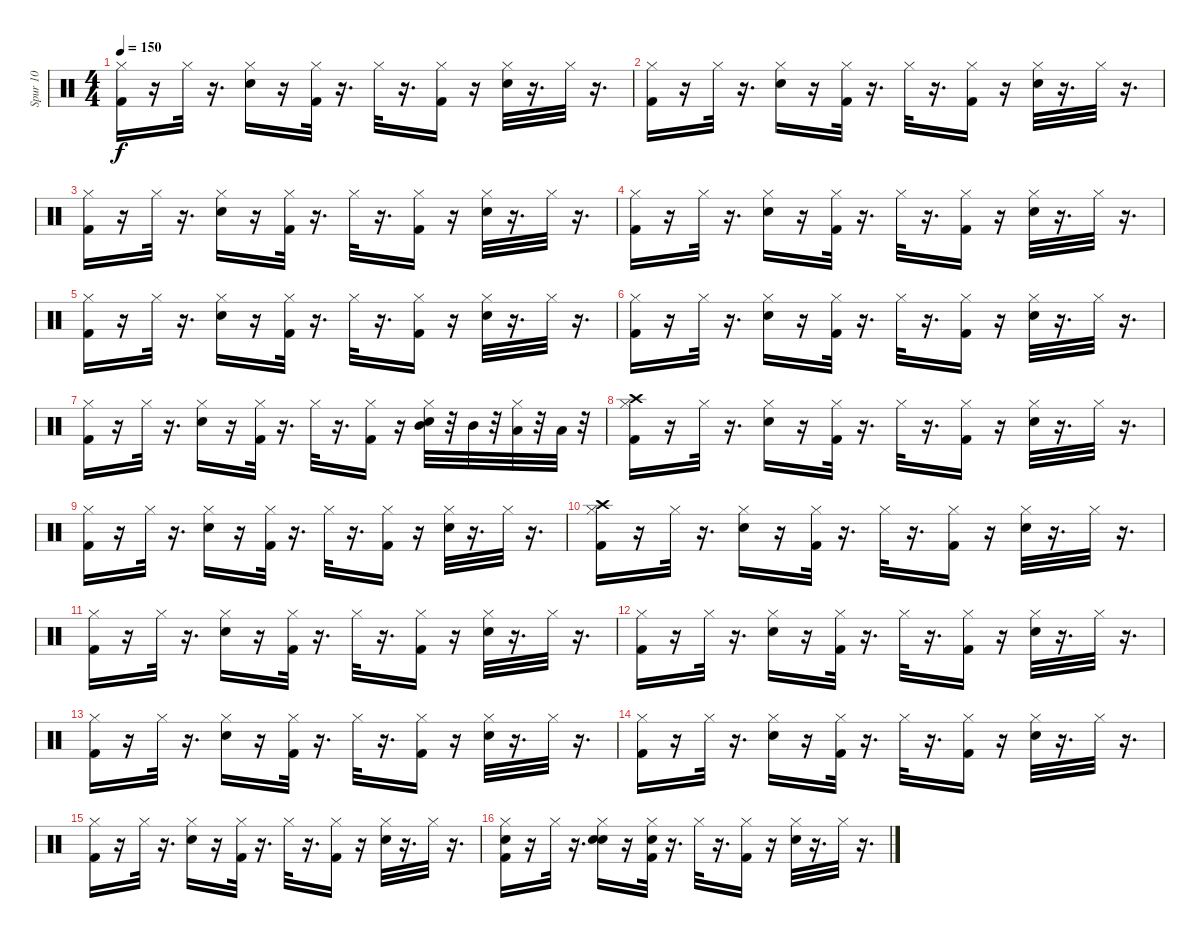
\track ("Spur 10" "Spur 10") {instrument percussion}
\staff {score}
\articulation defaults
\ts (4 4)
\tempo 150
\clef neutral
\ks c
("Hi-Hat (closed)" "Kick (hit) 2").16{dy f} r.16 "Hi-Hat (closed)".32 r.16{d} ("Electric Snare (hit)" "Hi-Hat (closed)").16 r.16 ("Kick (hit) 2" "Hi-Hat (closed)").32 r.16{d} "Hi-Hat (closed)".32 r.16{d} ("Kick (hit) 2" "Hi-Hat (closed)").16 r.16 ("Electric Snare (hit)" "Hi-Hat (closed)").32 r.16{d} "Hi-Hat (closed)".32 r.16{d} |
("Kick (hit) 2" "Hi-Hat (closed)").16 r.16 "Hi-Hat (closed)".32 r.16{d} ("Electric Snare (hit)" "Hi-Hat (closed)").16 r.16 ("Kick (hit) 2" "Hi-Hat (closed)").32 r.16{d} "Hi-Hat (closed)".32 r.16{d} ("Kick (hit) 2" "Hi-Hat (closed)").16 r.16 ("Electric Snare (hit)" "Hi-Hat (closed)").32 r.16{d} "Hi-Hat (closed)".32 r.16{d} |
("Kick (hit) 2" "Hi-Hat (closed)").16 r.16 "Hi-Hat (closed)".32 r.16{d} ("Electric Snare (hit)" "Hi-Hat (closed)").16 r.16 ("Kick (hit) 2" "Hi-Hat (closed)").32 r.16{d} "Hi-Hat (closed)".32 r.16{d} ("Kick (hit) 2" "Hi-Hat (closed)").16 r.16 ("Electric Snare (hit)" "Hi-Hat (closed)").32 r.16{d} "Hi-Hat (closed)".32 r.16{d} |
("Hi-Hat (closed)" "Kick (hit) 2").16 r.16 "Hi-Hat (closed)".32 r.16{d} ("Electric Snare (hit)" "Hi-Hat (closed)").16 r.16 ("Kick (hit) 2" "Hi-Hat (closed)").32 r.16{d} "Hi-Hat (closed)".32 r.16{d} ("Hi-Hat (closed)" "Kick (hit) 2").16 r.16 ("Hi-Hat (closed)" "Electric Snare (hit)").32 r.16{d} "Hi-Hat (closed)".32 r.16{d} |
("Kick (hit) 2" "Hi-Hat (closed)").16 r.16 "Hi-Hat (closed)".32 r.16{d} ("Electric Snare (hit)" "Hi-Hat (closed)").16 r.16 ("Kick (hit) 2" "Hi-Hat (closed)").32 r.16{d} "Hi-Hat (closed)".32 r.16{d} ("Kick (hit) 2" "Hi-Hat (closed)").16 r.16 ("Electric Snare (hit)" "Hi-Hat (closed)").32 r.16{d} "Hi-Hat (closed)".32 r.16{d} |
("Kick (hit) 2" "Hi-Hat (closed)").16 r.16 "Hi-Hat (closed)".32 r.16{d} ("Electric Snare (hit)" "Hi-Hat (closed)").16 r.16 ("Kick (hit) 2" "Hi-Hat (closed)").32 r.16{d} "Hi-Hat (closed)".32 r.16{d} ("Kick (hit) 2" "Hi-Hat (closed)").16 r.16 ("Electric Snare (hit)" "Hi-Hat (closed)").32 r.16{d} "Hi-Hat (closed)".32 r.16{d} |
("Kick (hit) 2" "Hi-Hat (closed)").16 r.16 "Hi-Hat (closed)".32 r.16{d} ("Electric Snare (hit)" "Hi-Hat (closed)").16 r.16 ("Kick (hit) 2" "Hi-Hat (closed)").32 r.16{d} "Hi-Hat (closed)".32 r.16{d} ("Kick (hit) 2" "Hi-Hat (closed)").16 r.16 ("Electric Snare (hit)" "Mid Tom (hit)" "Hi-Hat (closed)").32 r.32 "Mid Tom (hit)".32 r.32 ("Hi-Hat (closed)" "Low Tom (hit)").32 r.32 "Low Tom (hit)".32 r.32 |
("Crash high (hit)" "Hi-Hat (closed)" "Kick (hit) 2").16 r.16 "Hi-Hat (closed)".32 r.16{d} ("Electric Snare (hit)" "Hi-Hat (closed)").16 r.16 ("Kick (hit) 2" "Hi-Hat (closed)").32 r.16{d} "Hi-Hat (closed)".32 r.16{d} ("Kick (hit) 2" "Hi-Hat (closed)").16 r.16 ("Electric Snare (hit)" "Hi-Hat (closed)").32 r.16{d} "Hi-Hat (closed)".32 r.16{d} |
("Kick (hit) 2" "Hi-Hat (closed)").16 r.16 "Hi-Hat (closed)".32 r.16{d} ("Electric Snare (hit)" "Hi-Hat (closed)").16 r.16 ("Kick (hit) 2" "Hi-Hat (closed)").32 r.16{d} "Hi-Hat (closed)".32 r.16{d} ("Kick (hit) 2" "Hi-Hat (closed)").16 r.16 ("Electric Snare (hit)" "Hi-Hat (closed)").32 r.16{d} "Hi-Hat (closed)".32 r.16{d} |
("Crash high (hit)" "Hi-Hat (closed)" "Kick (hit) 2").16 r.16 "Hi-Hat (closed)".32 r.16{d} ("Hi-Hat (closed)" "Electric Snare (hit)").16 r.16 ("Hi-Hat (closed)" "Kick (hit) 2").32 r.16{d} "Hi-Hat (closed)".32 r.16{d} ("Kick (hit) 2" "Hi-Hat (closed)").16 r.16 ("Electric Snare (hit)" "Hi-Hat (closed)").32 r.16{d} "Hi-Hat (closed)".32 r.16{d} |
("Hi-Hat (closed)" "Kick (hit) 2").16 r.16 "Hi-Hat (closed)".32 r.16{d} ("Electric Snare (hit)" "Hi-Hat (closed)").16 r.16 ("Kick (hit) 2" "Hi-Hat (closed)").32 r.16{d} "Hi-Hat (closed)".32 r.16{d} ("Kick (hit) 2" "Hi-Hat (closed)").16 r.16 ("Electric Snare (hit)" "Hi-Hat (closed)").32 r.16{d} "Hi-Hat (closed)".32 r.16{d} |
("Hi-Hat (closed)" "Kick (hit) 2").16 r.16 "Hi-Hat (closed)".32 r.16{d} ("Electric Snare (hit)" "Hi-Hat (closed)").16 r.16 ("Kick (hit) 2" "Hi-Hat (closed)").32 r.16{d} "Hi-Hat (closed)".32 r.16{d} ("Kick (hit) 2" "Hi-Hat (closed)").16 r.16 ("Electric Snare (hit)" "Hi-Hat (closed)").32 r.16{d} "Hi-Hat (closed)".32 r.16{d} |
("Kick (hit) 2" "Hi-Hat (closed)").16 r.16 "Hi-Hat (closed)".32 r.16{d} ("Electric Snare (hit)" "Hi-Hat (closed)").16 r.16 ("Kick (hit) 2" "Hi-Hat (closed)").32 r.16{d} "Hi-Hat (closed)".32 r.16{d} ("Kick (hit) 2" "Hi-Hat (closed)").16 r.16 ("Electric Snare (hit)" "Hi-Hat (closed)").32 r.16{d} "Hi-Hat (closed)".32 r.16{d} |
("Hi-Hat (closed)" "Kick (hit) 2").16 r.16 "Hi-Hat (closed)".32 r.16{d} ("Hi-Hat (closed)" "Electric Snare (hit)").16 r.16 ("Kick (hit) 2" "Hi-Hat (closed)").32 r.16{d} "Hi-Hat (closed)".32 r.16{d} ("Kick (hit) 2" "Hi-Hat (closed)").16 r.16 ("Hi-Hat (closed)" "Electric Snare (hit)").32 r.16{d} "Hi-Hat (closed)".32 r.16{d} |
("Hi-Hat (closed)" "Kick (hit) 2").16 r.16 "Hi-Hat (closed)".32 r.16{d} ("Electric Snare (hit)" "Hi-Hat (closed)").16 r.16 ("Kick (hit) 2" "Hi-Hat (closed)").32 r.16{d} "Hi-Hat (closed)".32 r.16{d} ("Kick (hit) 2" "Hi-Hat (closed)").16 r.16 ("Electric Snare (hit)" "Hi-Hat (closed)").32 r.16{d} "Hi-Hat (closed)".32 r.16{d} |
("Kick (hit) 2" "Hand Clap (hit)" "Hi-Hat (closed)").16 r.16 "Hi-Hat (closed)".32 r.16{d} ("Electric Snare (hit)" "Hand Clap (hit)" "Hi-Hat (closed)").16 r.16 ("Kick (hit) 2" "Hi-Hat (closed)" "Hand Clap (hit)").32 r.16{d} "Hi-Hat (closed)".32 r.16{d} ("Kick (hit) 2" "Hi-Hat (closed)").16 r.16 ("Electric Snare (hit)" "Hi-Hat (closed)").32 r.16{d} "Hi-Hat (closed)".32 r.16{d}
